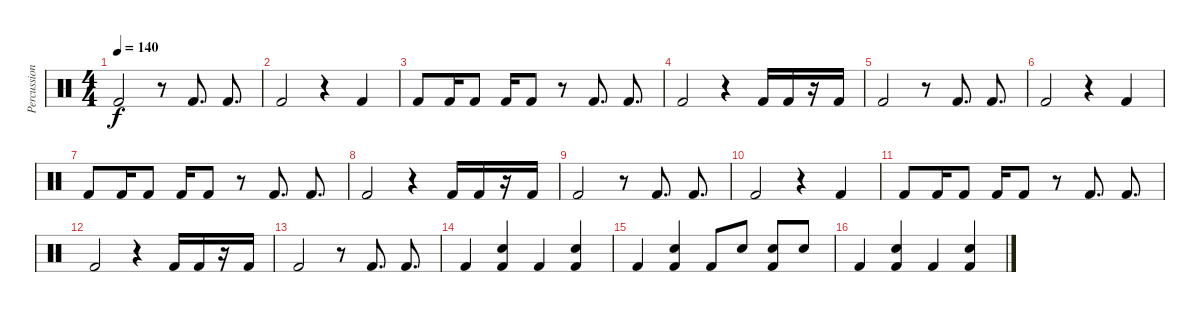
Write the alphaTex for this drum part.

\track ("Percussion" "Percussion") {instrument percussion}
\staff {score}
\articulation defaults
\ts (4 4)
\tempo 140
\clef neutral
\ks c "Kick (hit) 2".2{dy f}
r.8 "Kick (hit) 2".8{d} "Kick (hit) 2".8{d} |
"Kick (hit) 2".2 r.4 "Kick (hit) 2".4 |
"Kick (hit) 2".8 "Kick (hit) 2".16 "Kick (hit) 2".8 "Kick (hit) 2".16 "Kick (hit) 2".8 r.8 "Kick (hit) 2".8{d} "Kick (hit) 2".8{d} |
"Kick (hit) 2".2 r.4 "Kick (hit) 2".16 "Kick (hit) 2".16 r.16 "Kick (hit) 2".16 |
"Kick (hit) 2".2 r.8 "Kick (hit) 2".8{d} "Kick (hit) 2".8{d} |
"Kick (hit) 2".2 r.4 "Kick (hit) 2".4 |
"Kick (hit) 2".8 "Kick (hit) 2".16 "Kick (hit) 2".8 "Kick (hit) 2".16 "Kick (hit) 2".8 r.8 "Kick (hit) 2".8{d} "Kick (hit) 2".8{d} |
"Kick (hit) 2".2 r.4 "Kick (hit) 2".16 "Kick (hit) 2".16 r.16 "Kick (hit) 2".16 |
"Kick (hit) 2".2 r.8 "Kick (hit) 2".8{d} "Kick (hit) 2".8{d} |
"Kick (hit) 2".2 r.4 "Kick (hit) 2".4 |
"Kick (hit) 2".8 "Kick (hit) 2".16 "Kick (hit) 2".8 "Kick (hit) 2".16 "Kick (hit) 2".8 r.8 "Kick (hit) 2".8{d} "Kick (hit) 2".8{d} |
"Kick (hit) 2".2 r.4 "Kick (hit) 2".16 "Kick (hit) 2".16 r.16 "Kick (hit) 2".16 |
"Kick (hit) 2".2 r.8 "Kick (hit) 2".8{d} "Kick (hit) 2".8{d} |
"Kick (hit) 2".4 ("Hand Clap (hit)" "Kick (hit) 2").4 "Kick (hit) 2".4 ("Hand Clap (hit)" "Kick (hit) 2").4 |
"Kick (hit) 2".4 ("Hand Clap (hit)" "Kick (hit) 2").4 "Kick (hit) 2".8 "Hand Clap (hit)".8 ("Hand Clap (hit)" "Kick (hit) 2").8 "Hand Clap (hit)".8 |
"Kick (hit) 2".4 ("Hand Clap (hit)" "Kick (hit) 2").4 "Kick (hit) 2".4 ("Hand Clap (hit)" "Kick (hit) 2").4
